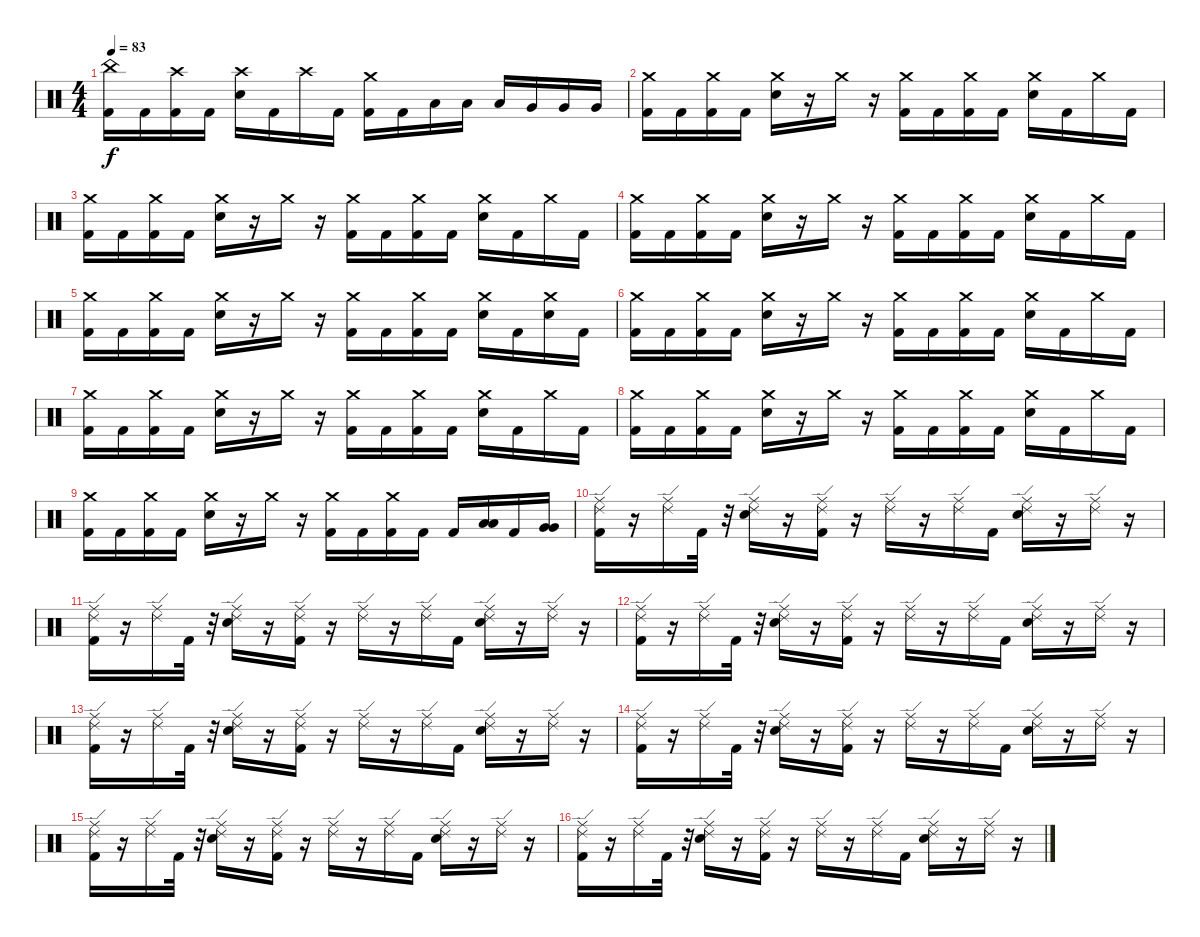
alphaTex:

\track "" {instrument percussion}
\staff {score}
\articulation defaults
\ts (4 4)
\tempo 83
\clef neutral
\ks c
("China (hit)" "Kick (hit) 2").16{dy f} "Kick (hit) 2".16 ("Crash high (hit)" "Kick (hit) 2").16 "Kick (hit) 2".16 ("Crash high (hit)" "Snare (hit) 2").16 "Kick (hit) 2".16 "Crash high (hit)".16 "Kick (hit) 2".16 ("Crash medium (hit)" "Kick (hit) 2").16 "Kick (hit) 2".16 "Low Floor Tom (hit)".16 "Low Floor Tom (hit)".16 "Low Floor Tom (hit)".16 "Very Low Tom (hit)".16 "Very Low Tom (hit)".16 "Very Low Tom (hit)".16 |
("Crash medium (hit)" "Kick (hit) 2").16 "Kick (hit) 2".16 ("Crash medium (hit)" "Kick (hit) 2").16 "Kick (hit) 2".16 ("Crash medium (hit)" "Snare (hit) 2").16 r.16 "Crash medium (hit)".16 r.16 ("Crash medium (hit)" "Kick (hit) 2").16 "Kick (hit) 2".16 ("Crash medium (hit)" "Kick (hit) 2").16 "Kick (hit) 2".16 ("Crash medium (hit)" "Snare (hit) 2").16 "Kick (hit) 2".16 "Crash medium (hit)".16 "Kick (hit) 2".16 |
("Crash medium (hit)" "Kick (hit) 2").16 "Kick (hit) 2".16 ("Crash medium (hit)" "Kick (hit) 2").16 "Kick (hit) 2".16 ("Crash medium (hit)" "Snare (hit) 2").16 r.16 "Crash medium (hit)".16 r.16 ("Crash medium (hit)" "Kick (hit) 2").16 "Kick (hit) 2".16 ("Crash medium (hit)" "Kick (hit) 2").16 "Kick (hit) 2".16 ("Crash medium (hit)" "Snare (hit) 2").16 "Kick (hit) 2".16 "Crash medium (hit)".16 "Kick (hit) 2".16 |
("Crash medium (hit)" "Kick (hit) 2").16 "Kick (hit) 2".16 ("Crash medium (hit)" "Kick (hit) 2").16 "Kick (hit) 2".16 ("Crash medium (hit)" "Snare (hit) 2").16 r.16 "Crash medium (hit)".16 r.16 ("Crash medium (hit)" "Kick (hit) 2").16 "Kick (hit) 2".16 ("Crash medium (hit)" "Kick (hit) 2").16 "Kick (hit) 2".16 ("Crash medium (hit)" "Snare (hit) 2").16 "Kick (hit) 2".16 "Crash medium (hit)".16 "Kick (hit) 2".16 |
("Crash medium (hit)" "Kick (hit) 2").16 "Kick (hit) 2".16 ("Crash medium (hit)" "Kick (hit) 2").16 "Kick (hit) 2".16 ("Crash medium (hit)" "Snare (hit) 2").16 r.16 "Crash medium (hit)".16 r.16 ("Crash medium (hit)" "Kick (hit) 2").16 "Kick (hit) 2".16 ("Crash medium (hit)" "Kick (hit) 2").16 "Kick (hit) 2".16 ("Crash medium (hit)" "Snare (hit) 2").16 "Kick (hit) 2".16 ("Crash medium (hit)" "Snare (hit) 2").16 "Kick (hit) 2".16 |
("Crash medium (hit)" "Kick (hit) 2").16 "Kick (hit) 2".16 ("Crash medium (hit)" "Kick (hit) 2").16 "Kick (hit) 2".16 ("Crash medium (hit)" "Snare (hit) 2").16 r.16 "Crash medium (hit)".16 r.16 ("Crash medium (hit)" "Kick (hit) 2").16 "Kick (hit) 2".16 ("Crash medium (hit)" "Kick (hit) 2").16 "Kick (hit) 2".16 ("Crash medium (hit)" "Snare (hit) 2").16 "Kick (hit) 2".16 "Crash medium (hit)".16 "Kick (hit) 2".16 |
("Crash medium (hit)" "Kick (hit) 2").16 "Kick (hit) 2".16 ("Crash medium (hit)" "Kick (hit) 2").16 "Kick (hit) 2".16 ("Crash medium (hit)" "Snare (hit) 2").16 r.16 "Crash medium (hit)".16 r.16 ("Crash medium (hit)" "Kick (hit) 2").16 "Kick (hit) 2".16 ("Crash medium (hit)" "Kick (hit) 2").16 "Kick (hit) 2".16 ("Crash medium (hit)" "Snare (hit) 2").16 "Kick (hit) 2".16 "Crash medium (hit)".16 "Kick (hit) 2".16 |
("Crash medium (hit)" "Kick (hit) 2").16 "Kick (hit) 2".16 ("Crash medium (hit)" "Kick (hit) 2").16 "Kick (hit) 2".16 ("Crash medium (hit)" "Snare (hit) 2").16 r.16 "Crash medium (hit)".16 r.16 ("Crash medium (hit)" "Kick (hit) 2").16 "Kick (hit) 2".16 ("Crash medium (hit)" "Kick (hit) 2").16 "Kick (hit) 2".16 ("Crash medium (hit)" "Snare (hit) 2").16 "Kick (hit) 2".16 "Crash medium (hit)".16 "Kick (hit) 2".16 |
("Crash medium (hit)" "Kick (hit) 2").16 "Kick (hit) 2".16 ("Crash medium (hit)" "Kick (hit) 2").16 "Kick (hit) 2".16 ("Crash medium (hit)" "Snare (hit) 2").16 r.16 "Crash medium (hit)".16 r.16 ("Crash medium (hit)" "Kick (hit) 2").16 "Kick (hit) 2".16 ("Crash medium (hit)" "Kick (hit) 2").16 "Kick (hit) 2".16 "Kick (hit) 2".16 ("Low Floor Tom (hit)" "Low Floor Tom (hit)").16 "Kick (hit) 2".16 ("Very Low Tom (hit)" "Very Low Tom (hit)").16 |
("Ride (edge) 2" "Ride (middle)" "Kick (hit) 2").16 r.16 ("Ride (edge) 2" "Ride (middle)").16 "Kick (hit) 2".32 r.32 ("Ride (edge) 2" "Ride (middle)" "Snare (hit) 2").16 r.16 ("Ride (edge) 2" "Ride (middle)" "Kick (hit) 2").16 r.16 ("Ride (edge) 2" "Ride (middle)").16 r.16 ("Ride (edge) 2" "Ride (middle)").16 "Kick (hit) 2".16 ("Ride (edge) 2" "Ride (middle)" "Snare (hit) 2").16 r.16 ("Ride (edge) 2" "Ride (middle)").16 r.16 |
("Ride (edge) 2" "Ride (middle)" "Kick (hit) 2").16 r.16 ("Ride (edge) 2" "Ride (middle)").16 "Kick (hit) 2".32 r.32 ("Ride (edge) 2" "Ride (middle)" "Snare (hit) 2").16 r.16 ("Ride (edge) 2" "Ride (middle)" "Kick (hit) 2").16 r.16 ("Ride (edge) 2" "Ride (middle)").16 r.16 ("Ride (edge) 2" "Ride (middle)").16 "Kick (hit) 2".16 ("Ride (edge) 2" "Ride (middle)" "Snare (hit) 2").16 r.16 ("Ride (edge) 2" "Ride (middle)").16 r.16 |
("Ride (edge) 2" "Ride (middle)" "Kick (hit) 2").16 r.16 ("Ride (edge) 2" "Ride (middle)").16 "Kick (hit) 2".32 r.32 ("Ride (edge) 2" "Ride (middle)" "Snare (hit) 2").16 r.16 ("Ride (edge) 2" "Ride (middle)" "Kick (hit) 2").16 r.16 ("Ride (edge) 2" "Ride (middle)").16 r.16 ("Ride (edge) 2" "Ride (middle)").16 "Kick (hit) 2".16 ("Ride (edge) 2" "Ride (middle)" "Snare (hit) 2").16 r.16 ("Ride (edge) 2" "Ride (middle)").16 r.16 |
("Ride (edge) 2" "Ride (middle)" "Kick (hit) 2").16 r.16 ("Ride (edge) 2" "Ride (middle)").16 "Kick (hit) 2".32 r.32 ("Ride (edge) 2" "Ride (middle)" "Snare (hit) 2").16 r.16 ("Ride (edge) 2" "Ride (middle)" "Kick (hit) 2").16 r.16 ("Ride (edge) 2" "Ride (middle)").16 r.16 ("Ride (edge) 2" "Ride (middle)").16 "Kick (hit) 2".16 ("Ride (edge) 2" "Ride (middle)" "Snare (hit) 2").16 r.16 ("Ride (edge) 2" "Ride (middle)").16 r.16 |
("Ride (edge) 2" "Ride (middle)" "Kick (hit) 2").16 r.16 ("Ride (edge) 2" "Ride (middle)").16 "Kick (hit) 2".32 r.32 ("Ride (edge) 2" "Ride (middle)" "Snare (hit) 2").16 r.16 ("Ride (edge) 2" "Ride (middle)" "Kick (hit) 2").16 r.16 ("Ride (edge) 2" "Ride (middle)").16 r.16 ("Ride (edge) 2" "Ride (middle)").16 "Kick (hit) 2".16 ("Ride (edge) 2" "Ride (middle)" "Snare (hit) 2").16 r.16 ("Ride (edge) 2" "Ride (middle)").16 r.16 |
("Ride (edge) 2" "Ride (middle)" "Kick (hit) 2").16 r.16 ("Ride (edge) 2" "Ride (middle)").16 "Kick (hit) 2".32 r.32 ("Ride (edge) 2" "Ride (middle)" "Snare (hit) 2").16 r.16 ("Ride (edge) 2" "Ride (middle)" "Kick (hit) 2").16 r.16 ("Ride (edge) 2" "Ride (middle)").16 r.16 ("Ride (edge) 2" "Ride (middle)").16 "Kick (hit) 2".16 ("Ride (edge) 2" "Ride (middle)" "Snare (hit) 2").16 r.16 ("Ride (edge) 2" "Ride (middle)").16 r.16 |
("Ride (edge) 2" "Ride (middle)" "Kick (hit) 2").16 r.16 ("Ride (edge) 2" "Ride (middle)").16 "Kick (hit) 2".32 r.32 ("Ride (edge) 2" "Ride (middle)" "Snare (hit) 2").16 r.16 ("Ride (edge) 2" "Ride (middle)" "Kick (hit) 2").16 r.16 ("Ride (edge) 2" "Ride (middle)").16 r.16 ("Ride (edge) 2" "Ride (middle)").16 "Kick (hit) 2".16 ("Ride (edge) 2" "Ride (middle)" "Snare (hit) 2").16 r.16 ("Ride (edge) 2" "Ride (middle)").16 r.16
